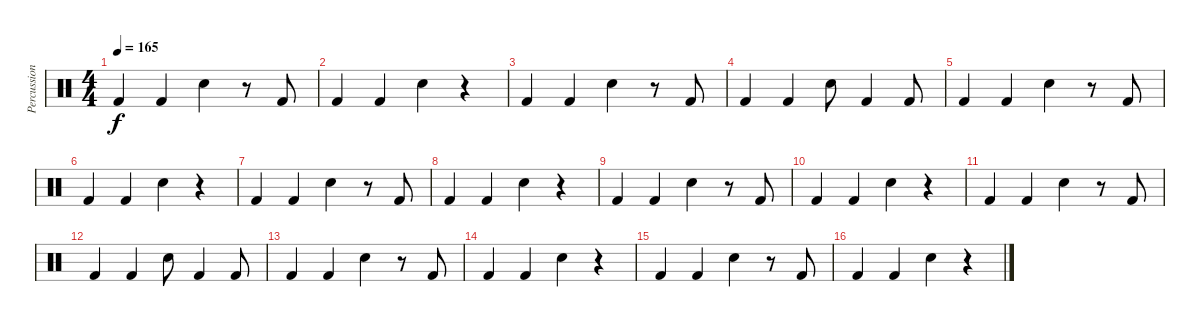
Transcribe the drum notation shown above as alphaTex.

\track ("Percussion" "Percussion") {instrument percussion}
\staff {score}
\articulation defaults
\ts (4 4)
\tempo 165
\clef neutral
\ks c "Kick (hit) 2".4{dy f} "Kick (hit) 2".4 "Electric Snare (hit)".4
r.8 "Kick (hit) 2".8 |
"Kick (hit) 2".4 "Kick (hit) 2".4 "Electric Snare (hit)".4 r.4 |
"Kick (hit) 2".4 "Kick (hit) 2".4 "Electric Snare (hit)".4 r.8 "Kick (hit) 2".8 |
"Kick (hit) 2".4 "Kick (hit) 2".4 "Electric Snare (hit)".8 "Kick (hit) 2".4 "Kick (hit) 2".8 |
"Kick (hit) 2".4 "Kick (hit) 2".4 "Electric Snare (hit)".4 r.8 "Kick (hit) 2".8 |
"Kick (hit) 2".4 "Kick (hit) 2".4 "Electric Snare (hit)".4 r.4 |
"Kick (hit) 2".4 "Kick (hit) 2".4 "Electric Snare (hit)".4 r.8 "Kick (hit) 2".8 |
"Kick (hit) 2".4 "Kick (hit) 2".4 "Electric Snare (hit)".4 r.4 |
"Kick (hit) 2".4 "Kick (hit) 2".4 "Electric Snare (hit)".4 r.8 "Kick (hit) 2".8 |
"Kick (hit) 2".4 "Kick (hit) 2".4 "Electric Snare (hit)".4 r.4 |
"Kick (hit) 2".4 "Kick (hit) 2".4 "Electric Snare (hit)".4 r.8 "Kick (hit) 2".8 |
"Kick (hit) 2".4 "Kick (hit) 2".4 "Electric Snare (hit)".8 "Kick (hit) 2".4 "Kick (hit) 2".8 |
"Kick (hit) 2".4 "Kick (hit) 2".4 "Electric Snare (hit)".4 r.8 "Kick (hit) 2".8 |
"Kick (hit) 2".4 "Kick (hit) 2".4 "Electric Snare (hit)".4 r.4 |
"Kick (hit) 2".4 "Kick (hit) 2".4 "Electric Snare (hit)".4 r.8 "Kick (hit) 2".8 |
"Kick (hit) 2".4 "Kick (hit) 2".4 "Electric Snare (hit)".4 r.4
